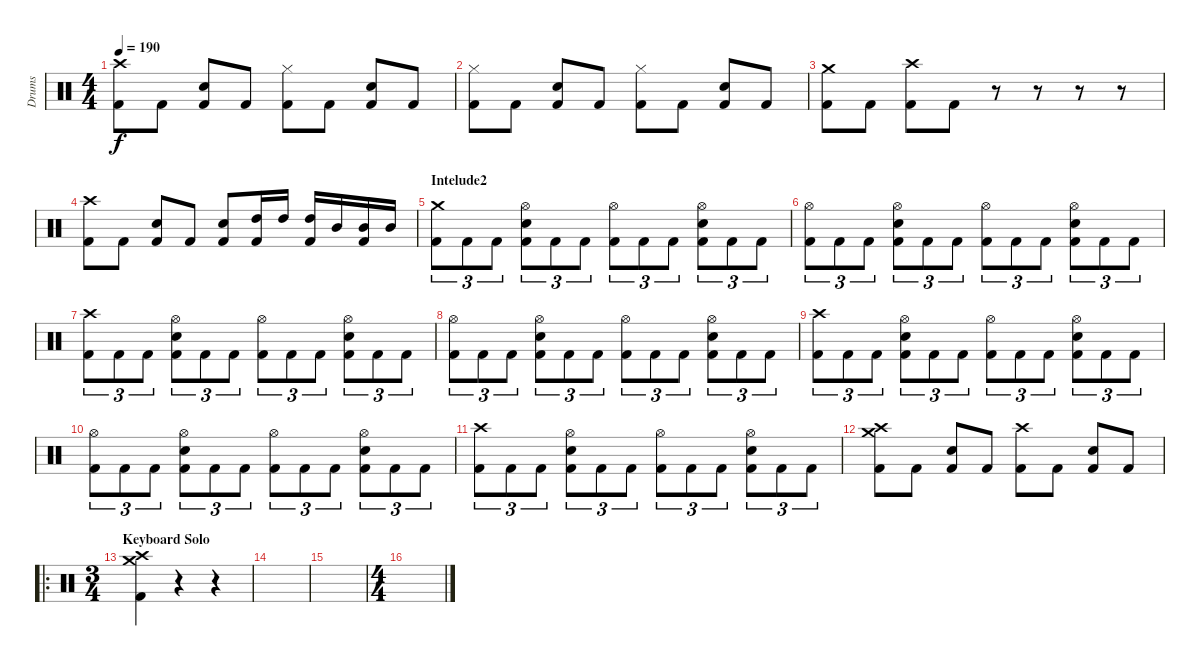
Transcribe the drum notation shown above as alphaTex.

\track ("Drums" "Drums") {instrument percussion}
\staff {score}
\articulation defaults
\ts (4 4)
\tempo 190
\clef neutral
\ks c
("Kick (hit) 2" "Crash high (hit)").8{dy f} "Kick (hit) 2".8 ("Kick (hit) 2" "Electric Snare (hit)").8 "Kick (hit) 2".8 ("Kick (hit) 2" "Hi-Hat (closed)").8 "Kick (hit) 2".8 ("Kick (hit) 2" "Electric Snare (hit)").8 "Kick (hit) 2".8 |
("Kick (hit) 2" "Hi-Hat (closed)").8 "Kick (hit) 2".8 ("Kick (hit) 2" "Electric Snare (hit)").8 "Kick (hit) 2".8 ("Kick (hit) 2" "Hi-Hat (closed)").8 "Kick (hit) 2".8 ("Kick (hit) 2" "Electric Snare (hit)").8 "Kick (hit) 2".8 |
("Kick (hit) 2" "Crash medium (hit)").8 "Kick (hit) 2".8 ("Kick (hit) 2" "Crash high (hit)").8 "Kick (hit) 2".8 r.8 r.8 r.8 r.8 |
("Kick (hit) 2" "Crash high (hit)").8 "Kick (hit) 2".8 ("Kick (hit) 2" "Electric Snare (hit)").8 "Kick (hit) 2".8 ("Kick (hit) 2" "Electric Snare (hit)").8 ("Kick (hit) 2" "High Tom (hit)").16 "High Tom (hit)".16 ("Kick (hit) 2" "High Tom (hit)").16 "Mid Tom (hit)".16 ("Kick (hit) 2" "Mid Tom (hit)").16 "Mid Tom (hit)".16 |
\section ("" "Intelude2")
("Kick (hit) 2" "Crash medium (hit)").8{tu (3 2)} "Kick (hit) 2".8{tu (3 2)} "Kick (hit) 2".8{tu (3 2)} ("Kick (hit) 2" "Electric Snare (hit)" "Hi-Hat (open)").8{tu (3 2)} "Kick (hit) 2".8{tu (3 2)} "Kick (hit) 2".8{tu (3 2)} ("Kick (hit) 2" "Hi-Hat (open)").8{tu (3 2)} "Kick (hit) 2".8{tu (3 2)} "Kick (hit) 2".8{tu (3 2)} ("Kick (hit) 2" "Electric Snare (hit)" "Hi-Hat (open)").8{tu (3 2)} "Kick (hit) 2".8{tu (3 2)} "Kick (hit) 2".8{tu (3 2)} |
("Kick (hit) 2" "Hi-Hat (open)").8{tu (3 2)} "Kick (hit) 2".8{tu (3 2)} "Kick (hit) 2".8{tu (3 2)} ("Kick (hit) 2" "Electric Snare (hit)" "Hi-Hat (open)").8{tu (3 2)} "Kick (hit) 2".8{tu (3 2)} "Kick (hit) 2".8{tu (3 2)} ("Kick (hit) 2" "Hi-Hat (open)").8{tu (3 2)} "Kick (hit) 2".8{tu (3 2)} "Kick (hit) 2".8{tu (3 2)} ("Kick (hit) 2" "Electric Snare (hit)" "Hi-Hat (open)").8{tu (3 2)} "Kick (hit) 2".8{tu (3 2)} "Kick (hit) 2".8{tu (3 2)} |
("Kick (hit) 2" "Crash high (hit)").8{tu (3 2)} "Kick (hit) 2".8{tu (3 2)} "Kick (hit) 2".8{tu (3 2)} ("Kick (hit) 2" "Electric Snare (hit)" "Hi-Hat (open)").8{tu (3 2)} "Kick (hit) 2".8{tu (3 2)} "Kick (hit) 2".8{tu (3 2)} ("Kick (hit) 2" "Hi-Hat (open)").8{tu (3 2)} "Kick (hit) 2".8{tu (3 2)} "Kick (hit) 2".8{tu (3 2)} ("Kick (hit) 2" "Electric Snare (hit)" "Hi-Hat (open)").8{tu (3 2)} "Kick (hit) 2".8{tu (3 2)} "Kick (hit) 2".8{tu (3 2)} |
("Kick (hit) 2" "Hi-Hat (open)").8{tu (3 2)} "Kick (hit) 2".8{tu (3 2)} "Kick (hit) 2".8{tu (3 2)} ("Kick (hit) 2" "Electric Snare (hit)" "Hi-Hat (open)").8{tu (3 2)} "Kick (hit) 2".8{tu (3 2)} "Kick (hit) 2".8{tu (3 2)} ("Kick (hit) 2" "Hi-Hat (open)").8{tu (3 2)} "Kick (hit) 2".8{tu (3 2)} "Kick (hit) 2".8{tu (3 2)} ("Kick (hit) 2" "Electric Snare (hit)" "Hi-Hat (open)").8{tu (3 2)} "Kick (hit) 2".8{tu (3 2)} "Kick (hit) 2".8{tu (3 2)} |
("Kick (hit) 2" "Crash high (hit)").8{tu (3 2)} "Kick (hit) 2".8{tu (3 2)} "Kick (hit) 2".8{tu (3 2)} ("Kick (hit) 2" "Electric Snare (hit)" "Hi-Hat (open)").8{tu (3 2)} "Kick (hit) 2".8{tu (3 2)} "Kick (hit) 2".8{tu (3 2)} ("Kick (hit) 2" "Hi-Hat (open)").8{tu (3 2)} "Kick (hit) 2".8{tu (3 2)} "Kick (hit) 2".8{tu (3 2)} ("Kick (hit) 2" "Electric Snare (hit)" "Hi-Hat (open)").8{tu (3 2)} "Kick (hit) 2".8{tu (3 2)} "Kick (hit) 2".8{tu (3 2)} |
("Kick (hit) 2" "Hi-Hat (open)").8{tu (3 2)} "Kick (hit) 2".8{tu (3 2)} "Kick (hit) 2".8{tu (3 2)} ("Kick (hit) 2" "Electric Snare (hit)" "Hi-Hat (open)").8{tu (3 2)} "Kick (hit) 2".8{tu (3 2)} "Kick (hit) 2".8{tu (3 2)} ("Kick (hit) 2" "Hi-Hat (open)").8{tu (3 2)} "Kick (hit) 2".8{tu (3 2)} "Kick (hit) 2".8{tu (3 2)} ("Kick (hit) 2" "Electric Snare (hit)" "Hi-Hat (open)").8{tu (3 2)} "Kick (hit) 2".8{tu (3 2)} "Kick (hit) 2".8{tu (3 2)} |
("Kick (hit) 2" "Crash high (hit)").8{tu (3 2)} "Kick (hit) 2".8{tu (3 2)} "Kick (hit) 2".8{tu (3 2)} ("Kick (hit) 2" "Electric Snare (hit)" "Hi-Hat (open)").8{tu (3 2)} "Kick (hit) 2".8{tu (3 2)} "Kick (hit) 2".8{tu (3 2)} ("Kick (hit) 2" "Hi-Hat (open)").8{tu (3 2)} "Kick (hit) 2".8{tu (3 2)} "Kick (hit) 2".8{tu (3 2)} ("Kick (hit) 2" "Electric Snare (hit)" "Hi-Hat (open)").8{tu (3 2)} "Kick (hit) 2".8{tu (3 2)} "Kick (hit) 2".8{tu (3 2)} |
("Kick (hit) 2" "Crash high (hit)" "Crash medium (hit)").8 "Kick (hit) 2".8 ("Kick (hit) 2" "Electric Snare (hit)").8 "Kick (hit) 2".8 ("Kick (hit) 2" "Crash high (hit)").8 "Kick (hit) 2".8 ("Kick (hit) 2" "Electric Snare (hit)").8 "Kick (hit) 2".8 |
\ro
\ts (3 4)
\section ("" "Keyboard Solo")
("Kick (hit) 2" "Crash medium (hit)" "Crash high (hit)").4 r.4 r.4 |
|
|
\ts (4 4)
